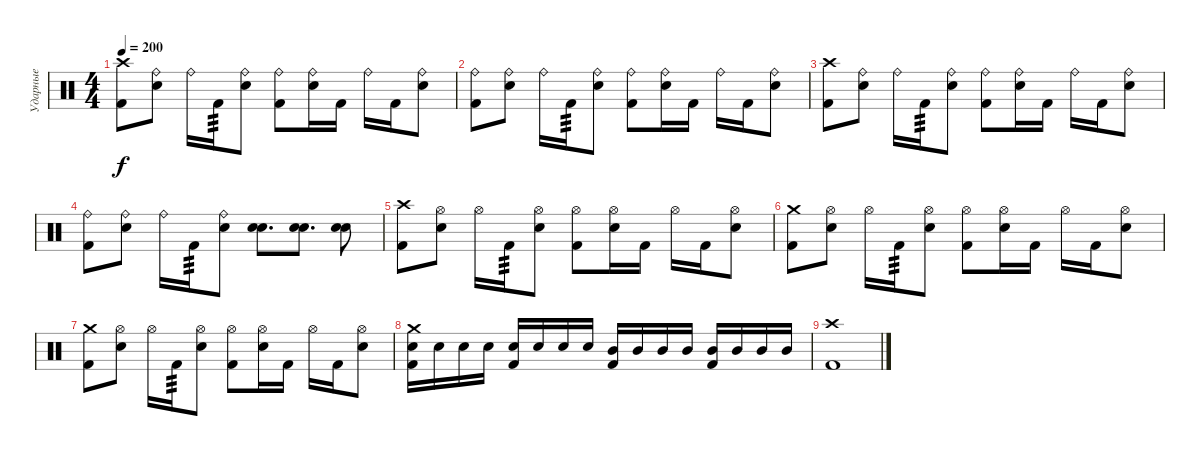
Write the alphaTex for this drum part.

\track ("Ударные" "Ударные") {instrument percussion}
\staff {score}
\articulation defaults
\ts (4 4)
\tempo 200
\clef neutral
\ks c
("Kick (hit) 2" "Crash high (hit)").8{dy f} ("Electric Snare (hit)" "Ride (bell)").8 "Ride (bell)".16 "Kick (hit) 2".16{tp 3} ("Electric Snare (hit)" "Ride (bell)").8 ("Kick (hit) 2" "Ride (bell)").8 ("Electric Snare (hit)" "Ride (bell)").16 "Kick (hit) 2".16 "Ride (bell)".16 "Kick (hit) 2".16 ("Electric Snare (hit)" "Ride (bell)").8 |
("Kick (hit) 2" "Ride (bell)").8 ("Electric Snare (hit)" "Ride (bell)").8 "Ride (bell)".16 "Kick (hit) 2".16{tp 3} ("Electric Snare (hit)" "Ride (bell)").8 ("Kick (hit) 2" "Ride (bell)").8 ("Electric Snare (hit)" "Ride (bell)").16 "Kick (hit) 2".16 "Ride (bell)".16 "Kick (hit) 2".16 ("Electric Snare (hit)" "Ride (bell)").8 |
("Kick (hit) 2" "Crash high (hit)").8 ("Electric Snare (hit)" "Ride (bell)").8 "Ride (bell)".16 "Kick (hit) 2".16{tp 3} ("Electric Snare (hit)" "Ride (bell)").8 ("Kick (hit) 2" "Ride (bell)").8 ("Electric Snare (hit)" "Ride (bell)").16 "Kick (hit) 2".16 "Ride (bell)".16 "Kick (hit) 2".16 ("Electric Snare (hit)" "Ride (bell)").8 |
("Kick (hit) 2" "Ride (bell)").8 ("Electric Snare (hit)" "Ride (bell)").8 "Ride (bell)".16 "Kick (hit) 2".16{tp 3} ("Electric Snare (hit)" "Ride (bell)").8 ("Electric Snare (hit)" "Electric Snare (hit)").8{d} ("Electric Snare (hit)" "Electric Snare (hit)").8{d} ("Electric Snare (hit)" "Electric Snare (hit)").8 |
("Kick (hit) 2" "Crash high (hit)").8 ("Electric Snare (hit)" "Hi-Hat (open)").8 "Hi-Hat (open)".16 "Kick (hit) 2".16{tp 3} ("Electric Snare (hit)" "Hi-Hat (open)").8 ("Kick (hit) 2" "Hi-Hat (open)").8 ("Electric Snare (hit)" "Hi-Hat (open)").16 "Kick (hit) 2".16 "Hi-Hat (open)".16 "Kick (hit) 2".16 ("Electric Snare (hit)" "Hi-Hat (open)").8 |
("Kick (hit) 2" "Crash medium (hit)").8 ("Electric Snare (hit)" "Hi-Hat (open)").8 "Hi-Hat (open)".16 "Kick (hit) 2".16{tp 3} ("Electric Snare (hit)" "Hi-Hat (open)").8 ("Kick (hit) 2" "Hi-Hat (open)").8 ("Electric Snare (hit)" "Hi-Hat (open)").16 "Kick (hit) 2".16 "Hi-Hat (open)".16 "Kick (hit) 2".16 ("Electric Snare (hit)" "Hi-Hat (open)").8 |
("Kick (hit) 2" "Crash medium (hit)").8 ("Electric Snare (hit)" "Hi-Hat (open)").8 "Hi-Hat (open)".16 "Kick (hit) 2".16{tp 3} ("Electric Snare (hit)" "Hi-Hat (open)").8 ("Kick (hit) 2" "Hi-Hat (open)").8 ("Electric Snare (hit)" "Hi-Hat (open)").16 "Kick (hit) 2".16 "Hi-Hat (open)".16 "Kick (hit) 2".16 ("Electric Snare (hit)" "Hi-Hat (open)").8 |
("Crash medium (hit)" "Kick (hit) 2" "Electric Snare (hit)").16 "Electric Snare (hit)".16 "Electric Snare (hit)".16 "Electric Snare (hit)".16 ("Kick (hit) 2" "Electric Snare (hit)").16 "Electric Snare (hit)".16 "Electric Snare (hit)".16 "Electric Snare (hit)".16 ("Kick (hit) 2" "Mid Tom (hit)").16 "Mid Tom (hit)".16 "Mid Tom (hit)".16 "Mid Tom (hit)".16 ("Kick (hit) 2" "Mid Tom (hit)").16 "Mid Tom (hit)".16 "Mid Tom (hit)".16 "Mid Tom (hit)".16 |
("Crash high (hit)" "Kick (hit) 2").1
